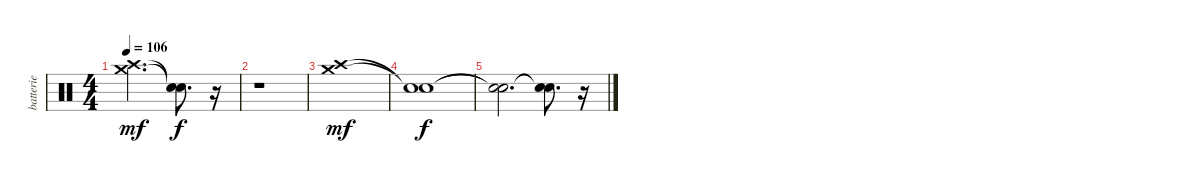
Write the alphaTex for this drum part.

\track ("batterie" "batterie") {instrument percussion}
\staff {score}
\articulation defaults
\ts (4 4)
\tempo 106
\clef neutral
\ks c
("Crash high (hit)" "Crash medium (hit)").2{d dy mf} ("Snare (hit)"{t} "Snare (hit)"{t}).8{d dy f} r.16 |
r.1 |
("Crash high (hit)" "Crash medium (hit)").1{dy mf} |
("Snare (hit)"{t} "Snare (hit)"{t}).1{dy f} |
("Snare (hit)"{t} "Snare (hit)"{t}).2{d} ("Snare (hit)"{t} "Snare (hit)"{t}).8{d} r.16
